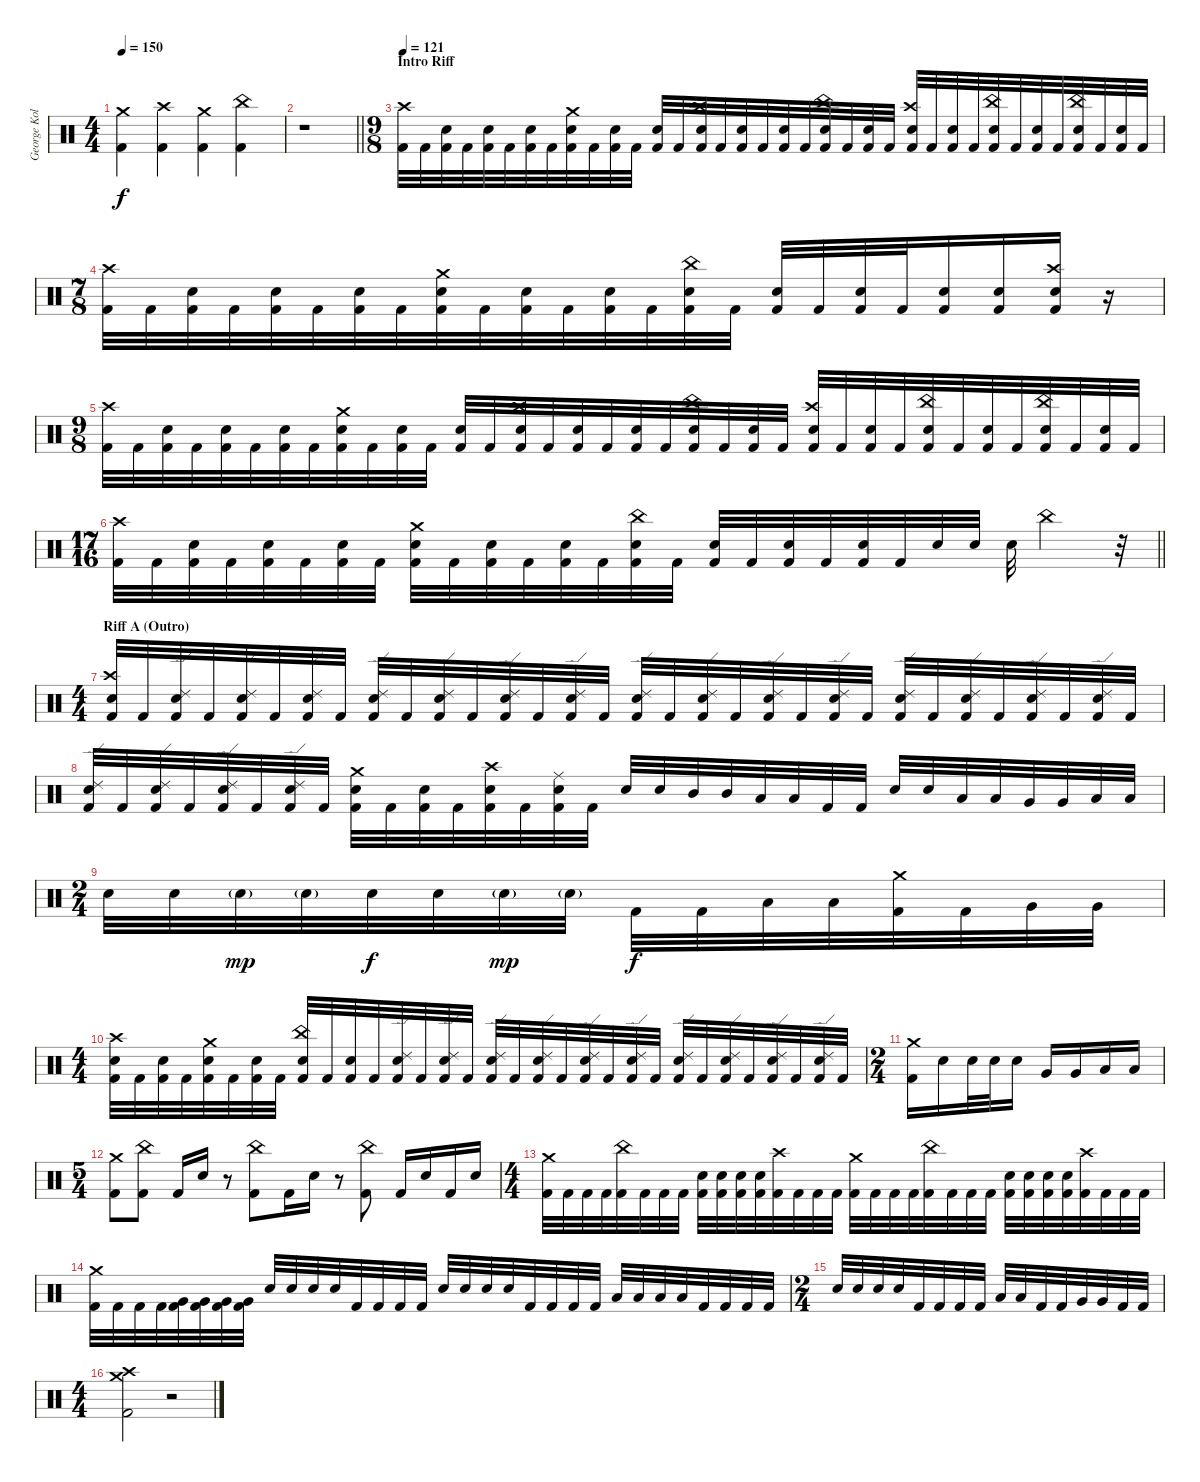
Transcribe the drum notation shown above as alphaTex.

\track ("George Kollias" "George Kol") {instrument percussion}
\staff {score}
\articulation defaults
\ts (4 4)
\tempo 150
\clef neutral
\ks c
("Crash medium (hit)" "Kick (hit) 2").4{dy f} ("Crash high (hit)" "Kick (hit) 2").4 ("Crash medium (hit)" "Kick (hit) 2").4 ("China (hit)" "Kick (hit) 2").4 |
\barLineRight lightlight
r.1 |
\ts (9 8)
\section ("" "Intro Riff")
\tempo 121
("Crash high (hit)" "Kick (hit) 2").32 "Kick (hit) 2".32 ("Electric Snare (hit)" "Kick (hit) 2").32 "Kick (hit) 2".32 ("Electric Snare (hit)" "Kick (hit) 2").32 "Kick (hit) 2".32 ("Electric Snare (hit)" "Kick (hit) 2").32 "Kick (hit) 2".32 ("Crash medium (hit)" "Electric Snare (hit)" "Kick (hit) 2").32 "Kick (hit) 2".32 ("Electric Snare (hit)" "Kick (hit) 2").32 "Kick (hit) 2".32 ("Electric Snare (hit)" "Kick (hit) 2").32 "Kick (hit) 2".32 ("Crash high (hit)" "Electric Snare (hit)" "Kick (hit) 2").32 "Kick (hit) 2".32 ("Electric Snare (hit)" "Kick (hit) 2").32 "Kick (hit) 2".32 ("Electric Snare (hit)" "Kick (hit) 2").32 "Kick (hit) 2".32 ("China (hit)" "Electric Snare (hit)" "Kick (hit) 2").32 "Kick (hit) 2".32 ("Electric Snare (hit)" "Kick (hit) 2").32 "Kick (hit) 2".32 ("Crash high (hit)" "Electric Snare (hit)" "Kick (hit) 2").32 "Kick (hit) 2".32 ("Electric Snare (hit)" "Kick (hit) 2").32 "Kick (hit) 2".32 ("China (hit)" "Electric Snare (hit)" "Kick (hit) 2").32 "Kick (hit) 2".32 ("Electric Snare (hit)" "Kick (hit) 2").32 "Kick (hit) 2".32 ("China (hit)" "Electric Snare (hit)" "Kick (hit) 2").32 "Kick (hit) 2".32 ("Electric Snare (hit)" "Kick (hit) 2").32 "Kick (hit) 2".32 |
\ts (7 8)
("Crash high (hit)" "Kick (hit) 2").32 "Kick (hit) 2".32 ("Electric Snare (hit)" "Kick (hit) 2").32 "Kick (hit) 2".32 ("Electric Snare (hit)" "Kick (hit) 2").32 "Kick (hit) 2".32 ("Electric Snare (hit)" "Kick (hit) 2").32 "Kick (hit) 2".32 ("Crash medium (hit)" "Electric Snare (hit)" "Kick (hit) 2").32 "Kick (hit) 2".32 ("Electric Snare (hit)" "Kick (hit) 2").32 "Kick (hit) 2".32 ("Electric Snare (hit)" "Kick (hit) 2").32 "Kick (hit) 2".32 ("China (hit)" "Electric Snare (hit)" "Kick (hit) 2").32 "Kick (hit) 2".32 ("Electric Snare (hit)" "Kick (hit) 2").32 "Kick (hit) 2".32 ("Electric Snare (hit)" "Kick (hit) 2").32 "Kick (hit) 2".32 ("Electric Snare (hit)" "Kick (hit) 2").16 ("Electric Snare (hit)" "Kick (hit) 2").16 ("Crash high (hit)" "Electric Snare (hit)" "Kick (hit) 2").16 r.16 |
\ts (9 8)
("Crash high (hit)" "Kick (hit) 2").32 "Kick (hit) 2".32 ("Electric Snare (hit)" "Kick (hit) 2").32 "Kick (hit) 2".32 ("Electric Snare (hit)" "Kick (hit) 2").32 "Kick (hit) 2".32 ("Electric Snare (hit)" "Kick (hit) 2").32 "Kick (hit) 2".32 ("Crash medium (hit)" "Electric Snare (hit)" "Kick (hit) 2").32 "Kick (hit) 2".32 ("Electric Snare (hit)" "Kick (hit) 2").32 "Kick (hit) 2".32 ("Electric Snare (hit)" "Kick (hit) 2").32 "Kick (hit) 2".32 ("Crash high (hit)" "Electric Snare (hit)" "Kick (hit) 2").32 "Kick (hit) 2".32 ("Electric Snare (hit)" "Kick (hit) 2").32 "Kick (hit) 2".32 ("Electric Snare (hit)" "Kick (hit) 2").32 "Kick (hit) 2".32 ("China (hit)" "Electric Snare (hit)" "Kick (hit) 2").32 "Kick (hit) 2".32 ("Electric Snare (hit)" "Kick (hit) 2").32 "Kick (hit) 2".32 ("Crash high (hit)" "Electric Snare (hit)" "Kick (hit) 2").32 "Kick (hit) 2".32 ("Electric Snare (hit)" "Kick (hit) 2").32 "Kick (hit) 2".32 ("China (hit)" "Electric Snare (hit)" "Kick (hit) 2").32 "Kick (hit) 2".32 ("Electric Snare (hit)" "Kick (hit) 2").32 "Kick (hit) 2".32 ("China (hit)" "Electric Snare (hit)" "Kick (hit) 2").32 "Kick (hit) 2".32 ("Electric Snare (hit)" "Kick (hit) 2").32 "Kick (hit) 2".32 |
\ts (17 16)
\barLineRight lightlight
("Crash high (hit)" "Kick (hit) 2").32 "Kick (hit) 2".32 ("Electric Snare (hit)" "Kick (hit) 2").32 "Kick (hit) 2".32 ("Electric Snare (hit)" "Kick (hit) 2").32 "Kick (hit) 2".32 ("Electric Snare (hit)" "Kick (hit) 2").32 "Kick (hit) 2".32 ("Crash medium (hit)" "Electric Snare (hit)" "Kick (hit) 2").32 "Kick (hit) 2".32 ("Electric Snare (hit)" "Kick (hit) 2").32 "Kick (hit) 2".32 ("Electric Snare (hit)" "Kick (hit) 2").32 "Kick (hit) 2".32 ("China (hit)" "Electric Snare (hit)" "Kick (hit) 2").32 "Kick (hit) 2".32 ("Electric Snare (hit)" "Kick (hit) 2").32 "Kick (hit) 2".32 ("Electric Snare (hit)" "Kick (hit) 2").32 "Kick (hit) 2".32 ("Electric Snare (hit)" "Kick (hit) 2").32 "Kick (hit) 2".32 "Electric Snare (hit)".32 "Electric Snare (hit)".32 "Electric Snare (hit)".32 "China (hit)".4 r.32 |
\ts (4 4)
\section ("" "Riff A (Outro)")
("Crash high (hit)" "Electric Snare (hit)" "Kick (hit) 2").32 "Kick (hit) 2".32 ("Ride (edge) 2" "Electric Snare (hit)" "Kick (hit) 2").32 "Kick (hit) 2".32 ("Ride (edge) 2" "Electric Snare (hit)" "Kick (hit) 2").32 "Kick (hit) 2".32 ("Ride (edge) 2" "Electric Snare (hit)" "Kick (hit) 2").32 "Kick (hit) 2".32 ("Ride (edge) 2" "Electric Snare (hit)" "Kick (hit) 2").32 "Kick (hit) 2".32 ("Ride (edge) 2" "Electric Snare (hit)" "Kick (hit) 2").32 "Kick (hit) 2".32 ("Ride (edge) 2" "Electric Snare (hit)" "Kick (hit) 2").32 "Kick (hit) 2".32 ("Ride (edge) 2" "Electric Snare (hit)" "Kick (hit) 2").32 "Kick (hit) 2".32 ("Ride (edge) 2" "Electric Snare (hit)" "Kick (hit) 2").32 "Kick (hit) 2".32 ("Ride (edge) 2" "Electric Snare (hit)" "Kick (hit) 2").32 "Kick (hit) 2".32 ("Ride (edge) 2" "Electric Snare (hit)" "Kick (hit) 2").32 "Kick (hit) 2".32 ("Ride (edge) 2" "Electric Snare (hit)" "Kick (hit) 2").32 "Kick (hit) 2".32 ("Ride (edge) 2" "Electric Snare (hit)" "Kick (hit) 2").32 "Kick (hit) 2".32 ("Ride (edge) 2" "Electric Snare (hit)" "Kick (hit) 2").32 "Kick (hit) 2".32 ("Ride (edge) 2" "Electric Snare (hit)" "Kick (hit) 2").32 "Kick (hit) 2".32 ("Ride (edge) 2" "Electric Snare (hit)" "Kick (hit) 2").32 "Kick (hit) 2".32 |
("Ride (edge) 2" "Electric Snare (hit)" "Kick (hit) 2").32 "Kick (hit) 2".32 ("Ride (edge) 2" "Electric Snare (hit)" "Kick (hit) 2").32 "Kick (hit) 2".32 ("Ride (edge) 2" "Electric Snare (hit)" "Kick (hit) 2").32 "Kick (hit) 2".32 ("Ride (edge) 2" "Electric Snare (hit)" "Kick (hit) 2").32 "Kick (hit) 2".32 ("Crash medium (hit)" "Electric Snare (hit)" "Kick (hit) 2").32 "Kick (hit) 2".32 ("Electric Snare (hit)" "Kick (hit) 2").32 "Kick (hit) 2".32 ("Crash high (hit)" "Electric Snare (hit)" "Kick (hit) 2").32 "Kick (hit) 2".32 ("Ride (middle)" "Electric Snare (hit)" "Kick (hit) 2").32 "Kick (hit) 2".32 "Electric Snare (hit)".32 "Electric Snare (hit)".32 "Mid Tom (hit)".32 "Mid Tom (hit)".32 "Low Tom (hit)".32 "Low Tom (hit)".32 "Kick (hit) 2".32 "Kick (hit) 2".32 "Electric Snare (hit)".32 "Electric Snare (hit)".32 "Low Tom (hit)".32 "Low Tom (hit)".32 "Very Low Tom (hit)".32 "Very Low Tom (hit)".32 "Low Floor Tom (hit)".32 "Low Floor Tom (hit)".32 |
\ts (2 4)
"Electric Snare (hit)".32 "Electric Snare (hit)".32 "Electric Snare (hit)"{g}.32{dy mp} "Electric Snare (hit)"{g}.32 "Electric Snare (hit)".32{dy f} "Electric Snare (hit)".32 "Electric Snare (hit)"{g}.32{dy mp} "Electric Snare (hit)"{g}.32 "Kick (hit) 2".32{dy f} "Kick (hit) 2".32 "Low Tom (hit)".32 "Low Tom (hit)".32 ("Crash medium (hit)" "Kick (hit) 2").32 "Kick (hit) 2".32 "Very Low Tom (hit)".32 "Very Low Tom (hit)".32 |
\ts (4 4)
("Crash high (hit)" "Electric Snare (hit)" "Kick (hit) 2").32 "Kick (hit) 2".32 ("Electric Snare (hit)" "Kick (hit) 2").32 "Kick (hit) 2".32 ("Crash medium (hit)" "Electric Snare (hit)" "Kick (hit) 2").32 "Kick (hit) 2".32 ("Electric Snare (hit)" "Kick (hit) 2").32 "Kick (hit) 2".32 ("China (hit)" "Electric Snare (hit)" "Kick (hit) 2").32 "Kick (hit) 2".32 ("Electric Snare (hit)" "Kick (hit) 2").32 "Kick (hit) 2".32 ("Ride (edge) 2" "Electric Snare (hit)" "Kick (hit) 2").32 "Kick (hit) 2".32 ("Ride (edge) 2" "Electric Snare (hit)" "Kick (hit) 2").32 "Kick (hit) 2".32 ("Ride (edge) 2" "Electric Snare (hit)" "Kick (hit) 2").32 "Kick (hit) 2".32 ("Ride (edge) 2" "Electric Snare (hit)" "Kick (hit) 2").32 "Kick (hit) 2".32 ("Ride (edge) 2" "Electric Snare (hit)" "Kick (hit) 2").32 "Kick (hit) 2".32 ("Ride (edge) 2" "Electric Snare (hit)" "Kick (hit) 2").32 "Kick (hit) 2".32 ("Ride (edge) 2" "Electric Snare (hit)" "Kick (hit) 2").32 "Kick (hit) 2".32 ("Ride (edge) 2" "Electric Snare (hit)" "Kick (hit) 2").32 "Kick (hit) 2".32 ("Ride (edge) 2" "Electric Snare (hit)" "Kick (hit) 2").32 "Kick (hit) 2".32 ("Ride (edge) 2" "Electric Snare (hit)" "Kick (hit) 2").32 "Kick (hit) 2".32 |
\ts (2 4)
("Crash medium (hit)" "Kick (hit) 2").16 "Electric Snare (hit)".16 "Electric Snare (hit)".32 "Electric Snare (hit)".32 "Electric Snare (hit)".16 "Very Low Tom (hit)".16 "Very Low Tom (hit)".16 "Low Floor Tom (hit)".16 "Low Floor Tom (hit)".16 |
\ts (5 4)
("Crash medium (hit)" "Kick (hit) 2").8 ("China (hit)" "Kick (hit) 2").8 "Kick (hit) 2".16 "Electric Snare (hit)".16 r.8 ("China (hit)" "Kick (hit) 2").8 "Kick (hit) 2".16 "Electric Snare (hit)".16 r.8 ("China (hit)" "Kick (hit) 2").8 "Kick (hit) 2".16 "Electric Snare (hit)".16 "Kick (hit) 2".16 "Electric Snare (hit)".16 |
\ts (4 4)
("Crash medium (hit)" "Kick (hit) 2").32 "Kick (hit) 2".32 "Kick (hit) 2".32 "Kick (hit) 2".32 ("China (hit)" "Kick (hit) 2").32 "Kick (hit) 2".32 "Kick (hit) 2".32 "Kick (hit) 2".32 ("Electric Snare (hit)" "Kick (hit) 2").32 ("Electric Snare (hit)" "Kick (hit) 2").32 ("Electric Snare (hit)" "Kick (hit) 2").32 ("Electric Snare (hit)" "Kick (hit) 2").32 ("Crash high (hit)" "Kick (hit) 2").32 "Kick (hit) 2".32 "Kick (hit) 2".32 "Kick (hit) 2".32 ("Crash medium (hit)" "Kick (hit) 2").32 "Kick (hit) 2".32 "Kick (hit) 2".32 "Kick (hit) 2".32 ("China (hit)" "Kick (hit) 2").32 "Kick (hit) 2".32 "Kick (hit) 2".32 "Kick (hit) 2".32 ("Electric Snare (hit)" "Kick (hit) 2").32 ("Electric Snare (hit)" "Kick (hit) 2").32 ("Electric Snare (hit)" "Kick (hit) 2").32 ("Electric Snare (hit)" "Kick (hit) 2").32 ("Crash high (hit)" "Kick (hit) 2").32 "Kick (hit) 2".32 "Kick (hit) 2".32 "Kick (hit) 2".32 |
("Crash medium (hit)" "Kick (hit) 2").32 "Kick (hit) 2".32 "Kick (hit) 2".32 "Kick (hit) 2".32 ("Very Low Tom (hit)" "Kick (hit) 2").32 ("Very Low Tom (hit)" "Kick (hit) 2").32 ("Very Low Tom (hit)" "Kick (hit) 2").32 ("Very Low Tom (hit)" "Kick (hit) 2").32 "Electric Snare (hit)".32 "Electric Snare (hit)".32 "Electric Snare (hit)".32 "Electric Snare (hit)".32 "Kick (hit) 2".32 "Kick (hit) 2".32 "Kick (hit) 2".32 "Kick (hit) 2".32 "Electric Snare (hit)".32 "Electric Snare (hit)".32 "Electric Snare (hit)".32 "Electric Snare (hit)".32 "Kick (hit) 2".32 "Kick (hit) 2".32 "Kick (hit) 2".32 "Kick (hit) 2".32 "Low Tom (hit)".32 "Low Tom (hit)".32 "Low Tom (hit)".32 "Low Tom (hit)".32 "Kick (hit) 2".32 "Kick (hit) 2".32 "Kick (hit) 2".32 "Kick (hit) 2".32 |
\ts (2 4)
"Electric Snare (hit)".32 "Electric Snare (hit)".32 "Electric Snare (hit)".32 "Electric Snare (hit)".32 "Kick (hit) 2".32 "Kick (hit) 2".32 "Kick (hit) 2".32 "Kick (hit) 2".32 "Low Tom (hit)".32 "Low Tom (hit)".32 "Kick (hit) 2".32 "Kick (hit) 2".32 "Very Low Tom (hit)".32 "Very Low Tom (hit)".32 "Kick (hit) 2".32 "Kick (hit) 2".32 |
\ts (4 4)
("Crash medium (hit)" "Crash high (hit)" "Kick (hit) 2").2 r.2
